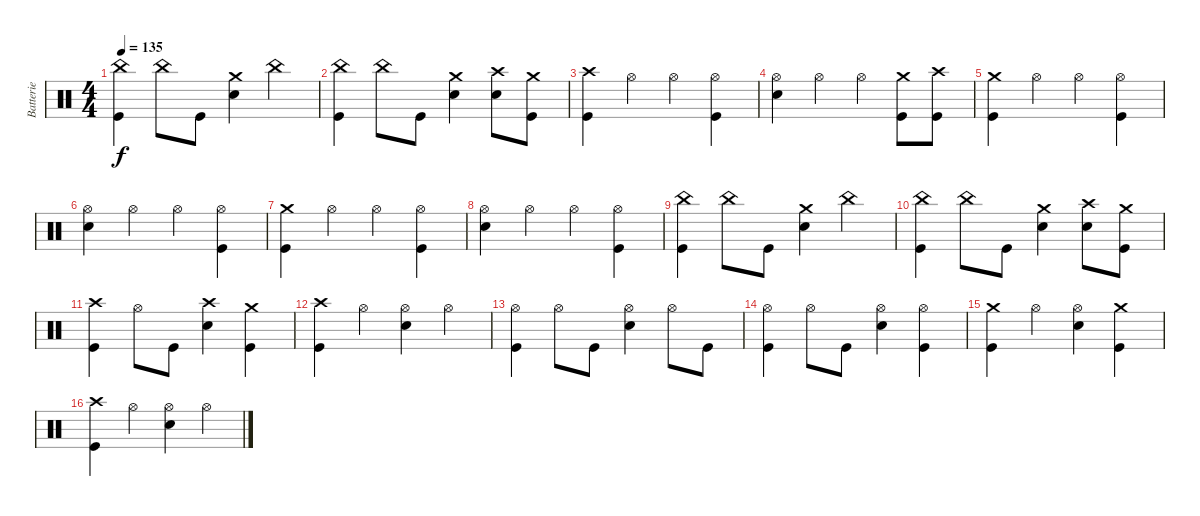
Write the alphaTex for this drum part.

\track ("Batterie" "Batterie") {instrument percussion}
\staff {score}
\articulation defaults
\ts (4 4)
\tempo 135
\clef neutral
\ks c
("China (hit)" "Kick (hit)").4{dy f} "China (hit)".8 "Kick (hit)".8 ("Crash medium (hit)" "Electric Snare (hit)").4 "China (hit)".4 |
("China (hit)" "Kick (hit)").4 "China (hit)".8 "Kick (hit)".8 ("Crash medium (hit)" "Electric Snare (hit)").4 ("Crash high (hit)" "Electric Snare (hit)").8 ("Crash medium (hit)" "Kick (hit)").8 |
("Crash high (hit)" "Kick (hit)").4 "Hi-Hat (open)".4 "Hi-Hat (open)".4 ("Hi-Hat (open)" "Kick (hit)").4 |
("Hi-Hat (open)" "Electric Snare (hit)").4 "Hi-Hat (open)".4 "Hi-Hat (open)".4 ("Crash medium (hit)" "Kick (hit)").8 ("Crash high (hit)" "Kick (hit)").8 |
("Crash medium (hit)" "Kick (hit)").4 "Hi-Hat (open)".4 "Hi-Hat (open)".4 ("Hi-Hat (open)" "Kick (hit)").4 |
("Hi-Hat (open)" "Electric Snare (hit)").4 "Hi-Hat (open)".4 "Hi-Hat (open)".4 ("Hi-Hat (open)" "Kick (hit)").4 |
("Crash medium (hit)" "Kick (hit)").4 "Hi-Hat (open)".4 "Hi-Hat (open)".4 ("Hi-Hat (open)" "Kick (hit)").4 |
("Hi-Hat (open)" "Electric Snare (hit)").4 "Hi-Hat (open)".4 "Hi-Hat (open)".4 ("Hi-Hat (open)" "Kick (hit)").4 |
("China (hit)" "Kick (hit)").4 "China (hit)".8 "Kick (hit)".8 ("Crash medium (hit)" "Electric Snare (hit)").4 "China (hit)".4 |
("China (hit)" "Kick (hit)").4 "China (hit)".8 "Kick (hit)".8 ("Crash medium (hit)" "Electric Snare (hit)").4 ("Crash high (hit)" "Electric Snare (hit)").8 ("Crash medium (hit)" "Kick (hit)").8 |
("Crash high (hit)" "Kick (hit)").4 "Hi-Hat (open)".8 "Kick (hit)".8 ("Crash high (hit)" "Electric Snare (hit)").4 ("Crash medium (hit)" "Kick (hit)").4 |
("Crash high (hit)" "Kick (hit)").4 "Hi-Hat (open)".4 ("Hi-Hat (open)" "Electric Snare (hit)").4 "Hi-Hat (open)".4 |
("Hi-Hat (open)" "Kick (hit)").4 "Hi-Hat (open)".8 "Kick (hit)".8 ("Hi-Hat (open)" "Electric Snare (hit)").4 "Hi-Hat (open)".8 "Kick (hit)".8 |
("Hi-Hat (open)" "Kick (hit)").4 "Hi-Hat (open)".8 "Kick (hit)".8 ("Hi-Hat (open)" "Electric Snare (hit)").4 ("Hi-Hat (open)" "Kick (hit)").4 |
("Crash medium (hit)" "Kick (hit)").4 "Hi-Hat (open)".4 ("Hi-Hat (open)" "Electric Snare (hit)").4 ("Crash medium (hit)" "Kick (hit)").4 |
("Crash high (hit)" "Kick (hit)").4 "Hi-Hat (open)".4 ("Hi-Hat (open)" "Electric Snare (hit)").4 "Hi-Hat (open)".4
